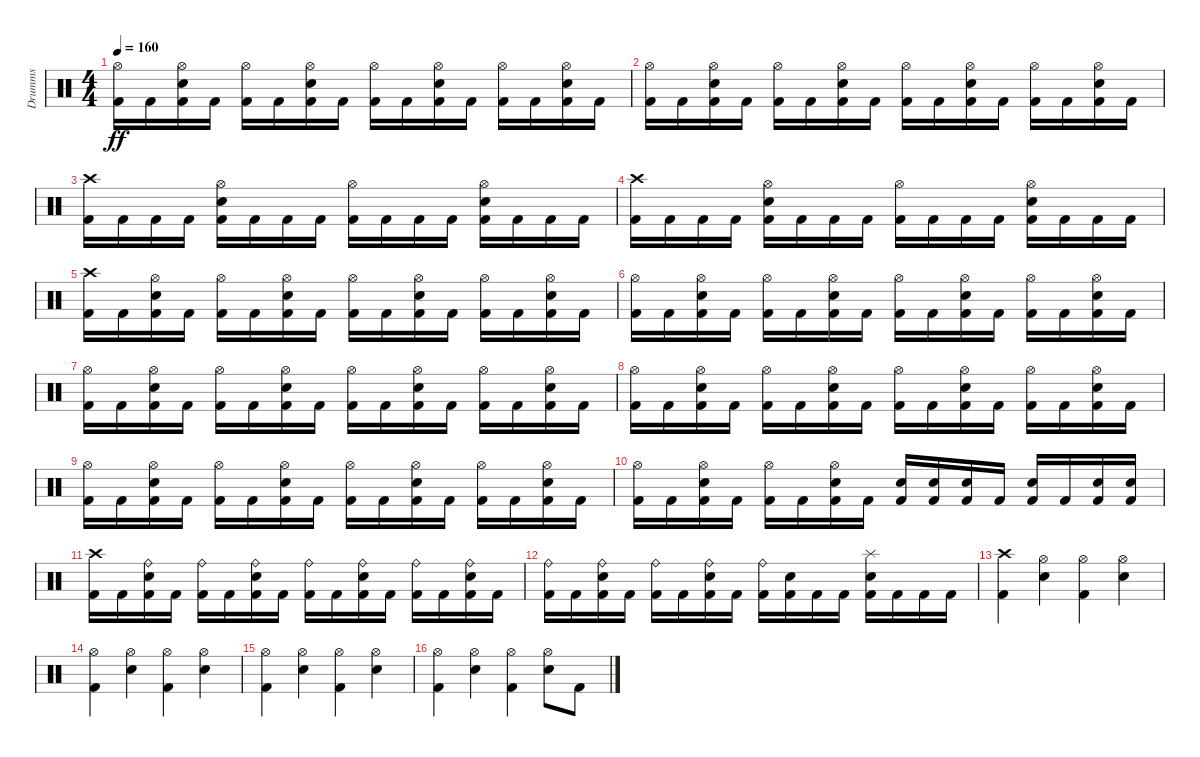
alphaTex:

\track ("Drumms" "Drumms") {instrument percussion}
\staff {score}
\articulation defaults
\ts (4 4)
\tempo 160
\clef neutral
\ks c
("Hi-Hat (open)" "Kick (hit) 2").16{dy ff} "Kick (hit) 2".16 ("Hi-Hat (open)" "Electric Snare (hit)" "Kick (hit) 2").16 "Kick (hit) 2".16 ("Hi-Hat (open)" "Kick (hit) 2").16 "Kick (hit) 2".16 ("Hi-Hat (open)" "Electric Snare (hit)" "Kick (hit) 2").16 "Kick (hit) 2".16 ("Hi-Hat (open)" "Kick (hit) 2").16 "Kick (hit) 2".16 ("Hi-Hat (open)" "Electric Snare (hit)" "Kick (hit) 2").16 "Kick (hit) 2".16 ("Hi-Hat (open)" "Kick (hit) 2").16 "Kick (hit) 2".16 ("Hi-Hat (open)" "Electric Snare (hit)" "Kick (hit) 2").16 "Kick (hit) 2".16 |
("Hi-Hat (open)" "Kick (hit) 2").16 "Kick (hit) 2".16 ("Hi-Hat (open)" "Electric Snare (hit)" "Kick (hit) 2").16 "Kick (hit) 2".16 ("Hi-Hat (open)" "Kick (hit) 2").16 "Kick (hit) 2".16 ("Hi-Hat (open)" "Electric Snare (hit)" "Kick (hit) 2").16 "Kick (hit) 2".16 ("Hi-Hat (open)" "Kick (hit) 2").16 "Kick (hit) 2".16 ("Hi-Hat (open)" "Electric Snare (hit)" "Kick (hit) 2").16 "Kick (hit) 2".16 ("Hi-Hat (open)" "Kick (hit) 2").16 "Kick (hit) 2".16 ("Hi-Hat (open)" "Electric Snare (hit)" "Kick (hit) 2").16 "Kick (hit) 2".16 |
("Crash high (hit)" "Kick (hit) 2").16 "Kick (hit) 2".16 "Kick (hit) 2".16 "Kick (hit) 2".16 ("Hi-Hat (open)" "Electric Snare (hit)" "Kick (hit) 2").16 "Kick (hit) 2".16 "Kick (hit) 2".16 "Kick (hit) 2".16 ("Hi-Hat (open)" "Kick (hit) 2").16 "Kick (hit) 2".16 "Kick (hit) 2".16 "Kick (hit) 2".16 ("Hi-Hat (open)" "Electric Snare (hit)" "Kick (hit) 2").16 "Kick (hit) 2".16 "Kick (hit) 2".16 "Kick (hit) 2".16 |
("Crash high (hit)" "Kick (hit) 2").16 "Kick (hit) 2".16 "Kick (hit) 2".16 "Kick (hit) 2".16 ("Hi-Hat (open)" "Electric Snare (hit)" "Kick (hit) 2").16 "Kick (hit) 2".16 "Kick (hit) 2".16 "Kick (hit) 2".16 ("Hi-Hat (open)" "Kick (hit) 2").16 "Kick (hit) 2".16 "Kick (hit) 2".16 "Kick (hit) 2".16 ("Hi-Hat (open)" "Electric Snare (hit)" "Kick (hit) 2").16 "Kick (hit) 2".16 "Kick (hit) 2".16 "Kick (hit) 2".16 |
("Crash high (hit)" "Kick (hit) 2").16 "Kick (hit) 2".16 ("Hi-Hat (open)" "Electric Snare (hit)" "Kick (hit) 2").16 "Kick (hit) 2".16 ("Hi-Hat (open)" "Kick (hit) 2").16 "Kick (hit) 2".16 ("Hi-Hat (open)" "Electric Snare (hit)" "Kick (hit) 2").16 "Kick (hit) 2".16 ("Hi-Hat (open)" "Kick (hit) 2").16 "Kick (hit) 2".16 ("Hi-Hat (open)" "Electric Snare (hit)" "Kick (hit) 2").16 "Kick (hit) 2".16 ("Hi-Hat (open)" "Kick (hit) 2").16 "Kick (hit) 2".16 ("Hi-Hat (open)" "Electric Snare (hit)" "Kick (hit) 2").16 "Kick (hit) 2".16 |
("Hi-Hat (open)" "Kick (hit) 2").16 "Kick (hit) 2".16 ("Hi-Hat (open)" "Electric Snare (hit)" "Kick (hit) 2").16 "Kick (hit) 2".16 ("Hi-Hat (open)" "Kick (hit) 2").16 "Kick (hit) 2".16 ("Hi-Hat (open)" "Electric Snare (hit)" "Kick (hit) 2").16 "Kick (hit) 2".16 ("Hi-Hat (open)" "Kick (hit) 2").16 "Kick (hit) 2".16 ("Hi-Hat (open)" "Electric Snare (hit)" "Kick (hit) 2").16 "Kick (hit) 2".16 ("Hi-Hat (open)" "Kick (hit) 2").16 "Kick (hit) 2".16 ("Hi-Hat (open)" "Electric Snare (hit)" "Kick (hit) 2").16 "Kick (hit) 2".16 |
("Hi-Hat (open)" "Kick (hit) 2").16 "Kick (hit) 2".16 ("Hi-Hat (open)" "Electric Snare (hit)" "Kick (hit) 2").16 "Kick (hit) 2".16 ("Hi-Hat (open)" "Kick (hit) 2").16 "Kick (hit) 2".16 ("Hi-Hat (open)" "Electric Snare (hit)" "Kick (hit) 2").16 "Kick (hit) 2".16 ("Hi-Hat (open)" "Kick (hit) 2").16 "Kick (hit) 2".16 ("Hi-Hat (open)" "Electric Snare (hit)" "Kick (hit) 2").16 "Kick (hit) 2".16 ("Hi-Hat (open)" "Kick (hit) 2").16 "Kick (hit) 2".16 ("Hi-Hat (open)" "Electric Snare (hit)" "Kick (hit) 2").16 "Kick (hit) 2".16 |
("Hi-Hat (open)" "Kick (hit) 2").16 "Kick (hit) 2".16 ("Hi-Hat (open)" "Electric Snare (hit)" "Kick (hit) 2").16 "Kick (hit) 2".16 ("Hi-Hat (open)" "Kick (hit) 2").16 "Kick (hit) 2".16 ("Hi-Hat (open)" "Electric Snare (hit)" "Kick (hit) 2").16 "Kick (hit) 2".16 ("Hi-Hat (open)" "Kick (hit) 2").16 "Kick (hit) 2".16 ("Hi-Hat (open)" "Electric Snare (hit)" "Kick (hit) 2").16 "Kick (hit) 2".16 ("Hi-Hat (open)" "Kick (hit) 2").16 "Kick (hit) 2".16 ("Hi-Hat (open)" "Electric Snare (hit)" "Kick (hit) 2").16 "Kick (hit) 2".16 |
("Hi-Hat (open)" "Kick (hit) 2").16 "Kick (hit) 2".16 ("Hi-Hat (open)" "Electric Snare (hit)" "Kick (hit) 2").16 "Kick (hit) 2".16 ("Hi-Hat (open)" "Kick (hit) 2").16 "Kick (hit) 2".16 ("Hi-Hat (open)" "Electric Snare (hit)" "Kick (hit) 2").16 "Kick (hit) 2".16 ("Hi-Hat (open)" "Kick (hit) 2").16 "Kick (hit) 2".16 ("Hi-Hat (open)" "Electric Snare (hit)" "Kick (hit) 2").16 "Kick (hit) 2".16 ("Hi-Hat (open)" "Kick (hit) 2").16 "Kick (hit) 2".16 ("Hi-Hat (open)" "Electric Snare (hit)" "Kick (hit) 2").16 "Kick (hit) 2".16 |
("Hi-Hat (open)" "Kick (hit) 2").16 "Kick (hit) 2".16 ("Hi-Hat (open)" "Electric Snare (hit)" "Kick (hit) 2").16 "Kick (hit) 2".16 ("Hi-Hat (open)" "Kick (hit) 2").16 "Kick (hit) 2".16 ("Hi-Hat (open)" "Electric Snare (hit)" "Kick (hit) 2").16 "Kick (hit) 2".16 ("Electric Snare (hit)" "Kick (hit) 2").16 ("Electric Snare (hit)" "Kick (hit) 2").16 ("Electric Snare (hit)" "Kick (hit) 2").16 "Kick (hit) 2".16 ("Electric Snare (hit)" "Kick (hit) 2").16 "Kick (hit) 2".16 ("Electric Snare (hit)" "Kick (hit) 2").16 ("Electric Snare (hit)" "Kick (hit) 2").16 |
("Crash high (hit)" "Kick (hit) 2").16 "Kick (hit) 2".16 ("Ride (bell)" "Electric Snare (hit)" "Kick (hit) 2").16 "Kick (hit) 2".16 ("Ride (bell)" "Kick (hit) 2").16 "Kick (hit) 2".16 ("Ride (bell)" "Electric Snare (hit)" "Kick (hit) 2").16 "Kick (hit) 2".16 ("Ride (bell)" "Kick (hit) 2").16 "Kick (hit) 2".16 ("Ride (bell)" "Electric Snare (hit)" "Kick (hit) 2").16 "Kick (hit) 2".16 ("Ride (bell)" "Kick (hit) 2").16 "Kick (hit) 2".16 ("Ride (bell)" "Electric Snare (hit)" "Kick (hit) 2").16 "Kick (hit) 2".16 |
("Ride (bell)" "Kick (hit) 2").16 "Kick (hit) 2".16 ("Ride (bell)" "Electric Snare (hit)" "Kick (hit) 2").16 "Kick (hit) 2".16 ("Ride (bell)" "Kick (hit) 2").16 "Kick (hit) 2".16 ("Ride (bell)" "Electric Snare (hit)" "Kick (hit) 2").16 "Kick (hit) 2".16 ("Ride (bell)" "Kick (hit) 2").16 ("Electric Snare (hit)" "Kick (hit) 2").16 "Kick (hit) 2".16 "Kick (hit) 2".16 ("Splash (hit)" "Electric Snare (hit)" "Kick (hit) 2").16 "Kick (hit) 2".16 "Kick (hit) 2".16 "Kick (hit) 2".16 |
("Crash high (hit)" "Kick (hit) 2").4 ("Hi-Hat (open)" "Electric Snare (hit)").4 ("Hi-Hat (open)" "Kick (hit) 2").4 ("Hi-Hat (open)" "Electric Snare (hit)").4 |
("Hi-Hat (open)" "Kick (hit) 2").4 ("Hi-Hat (open)" "Electric Snare (hit)").4 ("Hi-Hat (open)" "Kick (hit) 2").4 ("Hi-Hat (open)" "Electric Snare (hit)").4 |
("Hi-Hat (open)" "Kick (hit) 2").4 ("Hi-Hat (open)" "Electric Snare (hit)").4 ("Hi-Hat (open)" "Kick (hit) 2").4 ("Hi-Hat (open)" "Electric Snare (hit)").4 |
("Hi-Hat (open)" "Kick (hit) 2").4 ("Hi-Hat (open)" "Electric Snare (hit)").4 ("Hi-Hat (open)" "Kick (hit) 2").4 ("Hi-Hat (open)" "Electric Snare (hit)").8 "Kick (hit) 2".8
